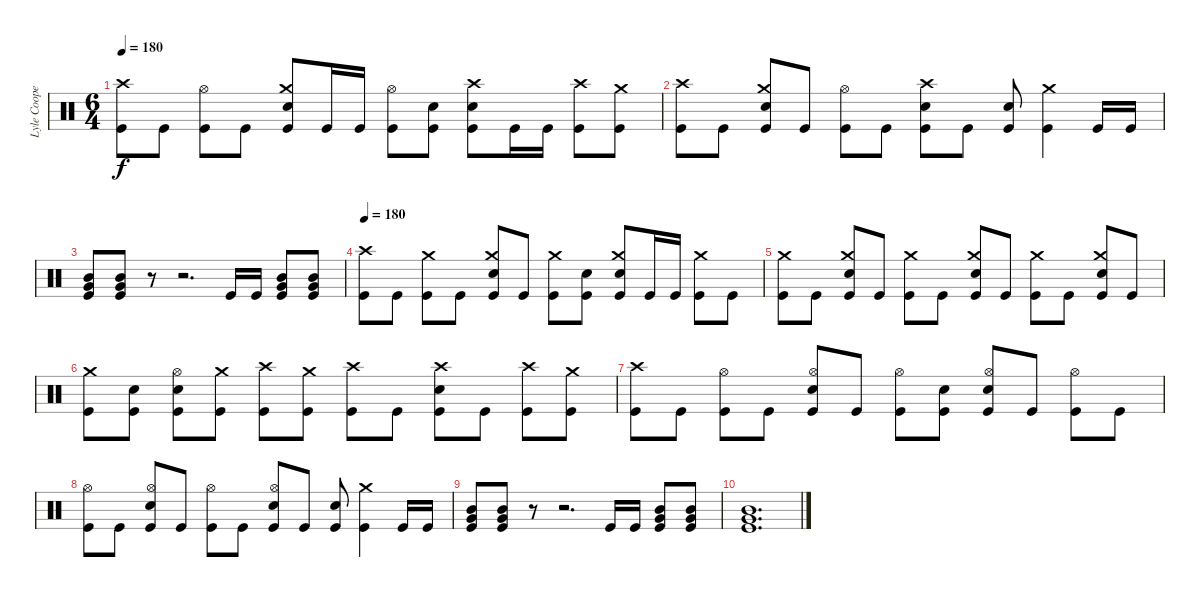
\track ("Lyle Cooper" "Lyle Coope") {instrument percussion}
\staff {score}
\articulation defaults
\ts (6 4)
\tempo 180
\clef neutral
\ks c
("Crash high (hit)" "Kick (hit)").8{dy f} "Kick (hit)".8 ("Hi-Hat (open)" "Kick (hit)").8 "Kick (hit)".8 ("Crash medium (hit)" "Snare (hit) 2" "Kick (hit)").8 "Kick (hit)".16 "Kick (hit)".16 ("Hi-Hat (open)" "Kick (hit)").8 ("Snare (hit) 2" "Kick (hit)").8 ("Crash high (hit)" "Snare (hit) 2" "Kick (hit)").8 "Kick (hit)".16 "Kick (hit)".16 ("Crash high (hit)" "Kick (hit)").8 ("Crash medium (hit)" "Kick (hit)").8 |
("Crash high (hit)" "Kick (hit)").8 "Kick (hit)".8 ("Crash medium (hit)" "Snare (hit) 2" "Kick (hit)").8 "Kick (hit)".8 ("Hi-Hat (open)" "Kick (hit)").8 "Kick (hit)".8 ("Crash high (hit)" "Snare (hit) 2" "Kick (hit)").8 "Kick (hit)".8 ("Snare (hit) 2" "Kick (hit)").8 ("Crash medium (hit)" "Kick (hit)").4 "Kick (hit)".16 "Kick (hit)".16 |
("Very Low Tom (hit)" "Mid Tom (hit)" "Kick (hit)").8 ("Very Low Tom (hit)" "Mid Tom (hit)" "Kick (hit)").8 r.8 r.2{d} "Kick (hit)".16 "Kick (hit)".16 ("Very Low Tom (hit)" "Mid Tom (hit)" "Kick (hit)").8 ("Very Low Tom (hit)" "Mid Tom (hit)" "Kick (hit)").8 |
\tempo 180
("Crash high (hit)" "Kick (hit)").8 "Kick (hit)".8 ("Crash medium (hit)" "Kick (hit)").8 "Kick (hit)".8 ("Crash medium (hit)" "Snare (hit) 2" "Kick (hit)").8 "Kick (hit)".8 ("Crash medium (hit)" "Kick (hit)").8 ("Snare (hit) 2" "Kick (hit)").8 ("Crash medium (hit)" "Snare (hit) 2" "Kick (hit)").8 "Kick (hit)".16 "Kick (hit)".16 ("Crash medium (hit)" "Kick (hit)").8 "Kick (hit)".8 |
("Crash medium (hit)" "Kick (hit)").8 "Kick (hit)".8 ("Crash medium (hit)" "Snare (hit) 2" "Kick (hit)").8 "Kick (hit)".8 ("Crash medium (hit)" "Kick (hit)").8 "Kick (hit)".8 ("Crash medium (hit)" "Snare (hit) 2" "Kick (hit)").8 "Kick (hit)".8 ("Crash medium (hit)" "Kick (hit)").8 "Kick (hit)".8 ("Crash medium (hit)" "Snare (hit) 2" "Kick (hit)").8 "Kick (hit)".8 |
("Crash medium (hit)" "Kick (hit)").8 ("Snare (hit) 2" "Kick (hit)").8 ("Hi-Hat (open)" "Snare (hit) 2" "Kick (hit)").8 ("Crash medium (hit)" "Kick (hit)").8 ("Crash high (hit)" "Kick (hit)").8 ("Crash medium (hit)" "Kick (hit)").8 ("Crash high (hit)" "Kick (hit)").8 "Kick (hit)".8 ("Crash high (hit)" "Snare (hit) 2" "Kick (hit)").8 "Kick (hit)".8 ("Crash high (hit)" "Kick (hit)").8 ("Crash medium (hit)" "Kick (hit)").8 |
("Crash high (hit)" "Kick (hit)").8 "Kick (hit)".8 ("Hi-Hat (open)" "Kick (hit)").8 "Kick (hit)".8 ("Hi-Hat (open)" "Snare (hit) 2" "Kick (hit)").8 "Kick (hit)".8 ("Hi-Hat (open)" "Kick (hit)").8 ("Snare (hit) 2" "Kick (hit)").8 ("Hi-Hat (open)" "Snare (hit) 2" "Kick (hit)").8 "Kick (hit)".8 ("Hi-Hat (open)" "Kick (hit)").8 "Kick (hit)".8 |
("Hi-Hat (open)" "Kick (hit)").8 "Kick (hit)".8 ("Hi-Hat (open)" "Snare (hit) 2" "Kick (hit)").8 "Kick (hit)".8 ("Hi-Hat (open)" "Kick (hit)").8 "Kick (hit)".8 ("Hi-Hat (open)" "Snare (hit) 2" "Kick (hit)").8 "Kick (hit)".8 ("Snare (hit) 2" "Kick (hit)").8 ("Crash medium (hit)" "Kick (hit)").4 "Kick (hit)".16 "Kick (hit)".16 |
("Very Low Tom (hit)" "Mid Tom (hit)" "Kick (hit)").8 ("Very Low Tom (hit)" "Mid Tom (hit)" "Kick (hit)").8 r.8 r.2{d} "Kick (hit)".16 "Kick (hit)".16 ("Very Low Tom (hit)" "Mid Tom (hit)" "Kick (hit)").8 ("Very Low Tom (hit)" "Mid Tom (hit)" "Kick (hit)").8 |
("Very Low Tom (hit)" "Mid Tom (hit)" "Kick (hit)").1{d}
